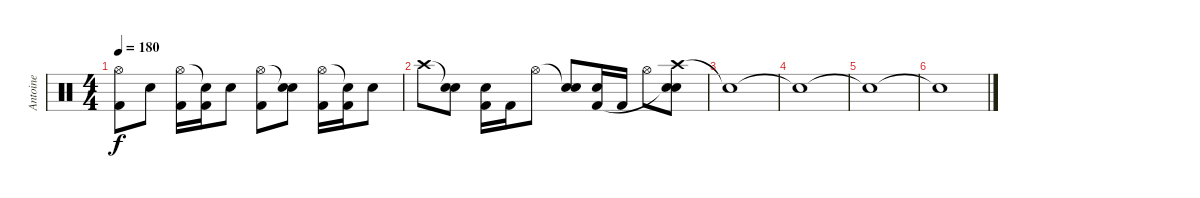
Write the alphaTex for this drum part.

\track ("Antoine" "Antoine") {instrument percussion}
\staff {score}
\articulation defaults
\ts (4 4)
\tempo 180
\clef neutral
\ks c
("Hi-Hat (open)" "Kick (hit) 2").8{dy f} "Electric Snare (hit)".8 ("Hi-Hat (open)" "Kick (hit) 2").16 ("Snare (hit)"{t} "Kick (hit) 2").16 "Electric Snare (hit)".8 ("Hi-Hat (open)" "Kick (hit) 2").8 ("Snare (hit)"{t} "Electric Snare (hit)").8 ("Hi-Hat (open)" "Kick (hit) 2").16 ("Snare (hit)"{t} "Kick (hit) 2").16 "Electric Snare (hit)".8 |
"Crash high (hit)".8 ("Snare (hit)"{t} "Electric Snare (hit)").8 ("Electric Snare (hit)" "Kick (hit) 2").16 "Kick (hit) 2".16 "Hi-Hat (open)".8 ("Snare (hit)"{t} "Electric Snare (hit)").8 ("Electric Snare (hit)" "Kick (hit) 2").16 "Kick (hit) 2".16 "Hi-Hat (open)".8 ("Crash high (hit)" "Snare (hit)"{t} "Electric Snare (hit)").8 |
"Snare (hit)"{t}.1 |
"Snare (hit)"{t}.1 |
"Snare (hit)"{t}.1 |
"Snare (hit)"{t}.1
